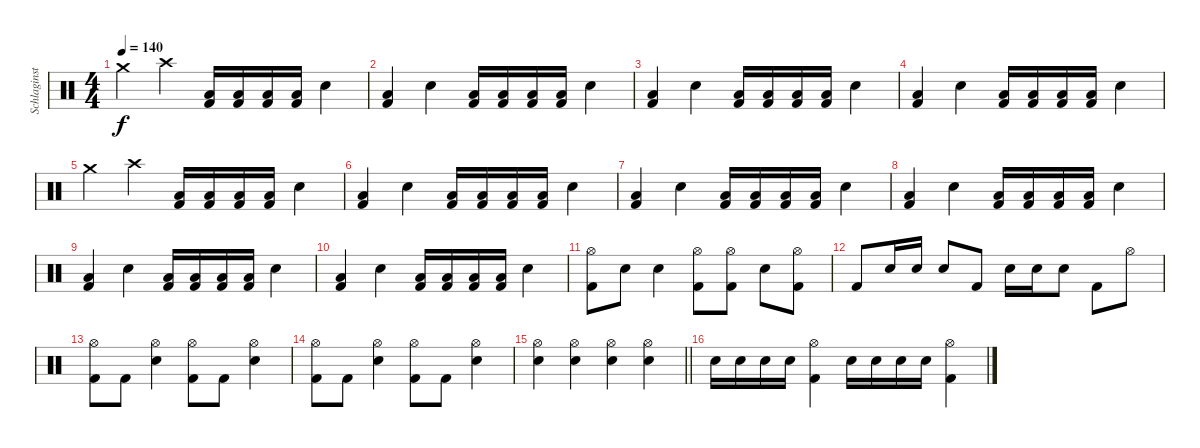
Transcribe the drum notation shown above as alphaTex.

\track ("Schlaginstrumente - Auswahl" "Schlaginst") {instrument percussion}
\staff {score}
\articulation defaults
\ts (4 4)
\tempo 140
\clef neutral
\ks c "Crash medium (hit)".4{dy f} "Crash high (hit)".4
("Low Floor Tom (hit)" "Kick (hit) 2").16 ("Low Floor Tom (hit)" "Kick (hit) 2").16 ("Low Floor Tom (hit)" "Kick (hit) 2").16 ("Low Floor Tom (hit)" "Kick (hit) 2").16 "Snare (hit) 2".4 |
("Low Floor Tom (hit)" "Kick (hit) 2").4 "Snare (hit) 2".4 ("Low Floor Tom (hit)" "Kick (hit) 2").16 ("Low Floor Tom (hit)" "Kick (hit) 2").16 ("Low Floor Tom (hit)" "Kick (hit) 2").16 ("Low Floor Tom (hit)" "Kick (hit) 2").16 "Snare (hit) 2".4 |
("Low Floor Tom (hit)" "Kick (hit) 2").4 "Snare (hit) 2".4 ("Low Floor Tom (hit)" "Kick (hit) 2").16 ("Low Floor Tom (hit)" "Kick (hit) 2").16 ("Low Floor Tom (hit)" "Kick (hit) 2").16 ("Low Floor Tom (hit)" "Kick (hit) 2").16 "Snare (hit) 2".4 |
("Low Floor Tom (hit)" "Kick (hit) 2").4 "Snare (hit) 2".4 ("Low Floor Tom (hit)" "Kick (hit) 2").16 ("Low Floor Tom (hit)" "Kick (hit) 2").16 ("Low Floor Tom (hit)" "Kick (hit) 2").16 ("Low Floor Tom (hit)" "Kick (hit) 2").16 "Snare (hit) 2".4 |
"Crash medium (hit)".4 "Crash high (hit)".4 ("Low Floor Tom (hit)" "Kick (hit) 2").16 ("Low Floor Tom (hit)" "Kick (hit) 2").16 ("Low Floor Tom (hit)" "Kick (hit) 2").16 ("Low Floor Tom (hit)" "Kick (hit) 2").16 "Snare (hit) 2".4 |
("Low Floor Tom (hit)" "Kick (hit) 2").4 "Snare (hit) 2".4 ("Low Floor Tom (hit)" "Kick (hit) 2").16 ("Low Floor Tom (hit)" "Kick (hit) 2").16 ("Low Floor Tom (hit)" "Kick (hit) 2").16 ("Low Floor Tom (hit)" "Kick (hit) 2").16 "Snare (hit) 2".4 |
("Low Floor Tom (hit)" "Kick (hit) 2").4 "Snare (hit) 2".4 ("Low Floor Tom (hit)" "Kick (hit) 2").16 ("Low Floor Tom (hit)" "Kick (hit) 2").16 ("Low Floor Tom (hit)" "Kick (hit) 2").16 ("Low Floor Tom (hit)" "Kick (hit) 2").16 "Snare (hit) 2".4 |
("Low Floor Tom (hit)" "Kick (hit) 2").4 "Snare (hit) 2".4 ("Low Floor Tom (hit)" "Kick (hit) 2").16 ("Low Floor Tom (hit)" "Kick (hit) 2").16 ("Low Floor Tom (hit)" "Kick (hit) 2").16 ("Low Floor Tom (hit)" "Kick (hit) 2").16 "Snare (hit) 2".4 |
("Low Floor Tom (hit)" "Kick (hit) 2").4 "Snare (hit) 2".4 ("Low Floor Tom (hit)" "Kick (hit) 2").16 ("Low Floor Tom (hit)" "Kick (hit) 2").16 ("Low Floor Tom (hit)" "Kick (hit) 2").16 ("Low Floor Tom (hit)" "Kick (hit) 2").16 "Snare (hit) 2".4 |
("Low Floor Tom (hit)" "Kick (hit) 2").4 "Snare (hit) 2".4 ("Low Floor Tom (hit)" "Kick (hit) 2").16 ("Low Floor Tom (hit)" "Kick (hit) 2").16 ("Low Floor Tom (hit)" "Kick (hit) 2").16 ("Low Floor Tom (hit)" "Kick (hit) 2").16 "Snare (hit) 2".4 |
("Hi-Hat (open)" "Kick (hit) 2").8 "Snare (hit) 2".8 "Snare (hit) 2".4 ("Hi-Hat (open)" "Kick (hit) 2").8 ("Hi-Hat (open)" "Kick (hit) 2").8 "Snare (hit) 2".8 ("Hi-Hat (open)" "Kick (hit) 2").8 |
"Kick (hit) 2".8 "Snare (hit) 2".16 "Snare (hit) 2".16 "Snare (hit) 2".8 "Kick (hit) 2".8 "Snare (hit) 2".16 "Snare (hit) 2".16 "Snare (hit) 2".8 "Kick (hit) 2".8 "Hi-Hat (open)".8 |
("Hi-Hat (open)" "Kick (hit) 2").8 "Kick (hit) 2".8 ("Hi-Hat (open)" "Snare (hit) 2").4 ("Hi-Hat (open)" "Kick (hit) 2").8 "Kick (hit) 2".8 ("Hi-Hat (open)" "Snare (hit) 2").4 |
("Hi-Hat (open)" "Kick (hit) 2").8 "Kick (hit) 2".8 ("Hi-Hat (open)" "Snare (hit) 2").4 ("Hi-Hat (open)" "Kick (hit) 2").8 "Kick (hit) 2".8 ("Hi-Hat (open)" "Snare (hit) 2").4 |
\barLineRight lightlight
("Hi-Hat (open)" "Snare (hit) 2").4 ("Hi-Hat (open)" "Snare (hit) 2").4 ("Hi-Hat (open)" "Snare (hit) 2").4 ("Hi-Hat (open)" "Snare (hit) 2").4 |
"Snare (hit) 2".16 "Snare (hit) 2".16 "Snare (hit) 2".16 "Snare (hit) 2".16 ("Hi-Hat (open)" "Kick (hit) 2").4 "Snare (hit) 2".16 "Snare (hit) 2".16 "Snare (hit) 2".16 "Snare (hit) 2".16 ("Hi-Hat (open)" "Kick (hit) 2").4
